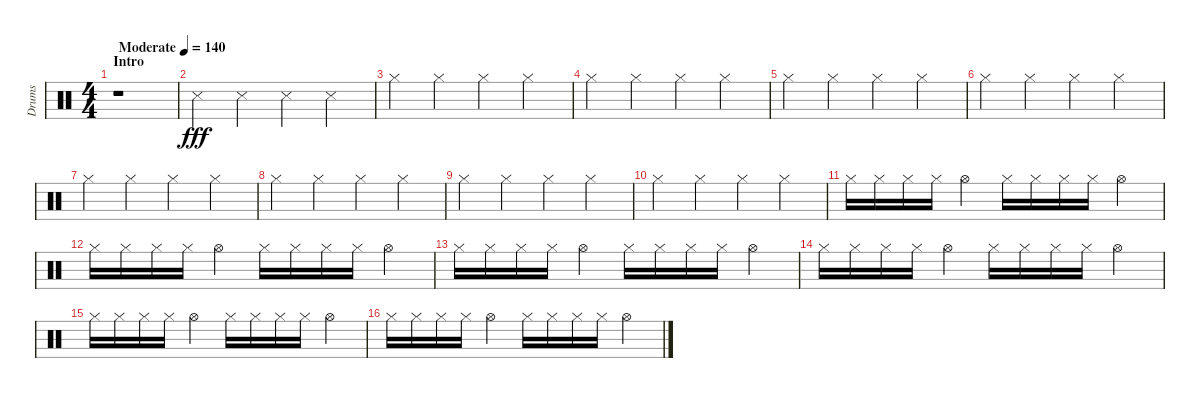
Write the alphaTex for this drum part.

\track ("Drums" "Drums") {instrument percussion}
\staff {score}
\articulation defaults
\ts (4 4)
\section ("" "Intro")
\tempo (140 "Moderate")
\clef neutral
\ks c
r.1{dy fff} |
"Metronome (hit)".4 "Metronome (hit)".4 "Metronome (hit)".4 "Metronome (hit)".4 |
"Hi-Hat (closed)".4 "Hi-Hat (closed)".4 "Hi-Hat (closed)".4 "Hi-Hat (closed)".4 |
"Hi-Hat (closed)".4 "Hi-Hat (closed)".4 "Hi-Hat (closed)".4 "Hi-Hat (closed)".4 |
"Hi-Hat (closed)".4 "Hi-Hat (closed)".4 "Hi-Hat (closed)".4 "Hi-Hat (closed)".4 |
"Hi-Hat (closed)".4 "Hi-Hat (closed)".4 "Hi-Hat (closed)".4 "Hi-Hat (closed)".4 |
"Hi-Hat (closed)".4 "Hi-Hat (closed)".4 "Hi-Hat (closed)".4 "Hi-Hat (closed)".4 |
"Hi-Hat (closed)".4 "Hi-Hat (closed)".4 "Hi-Hat (closed)".4 "Hi-Hat (closed)".4 |
"Hi-Hat (closed)".4 "Hi-Hat (closed)".4 "Hi-Hat (closed)".4 "Hi-Hat (closed)".4 |
"Hi-Hat (closed)".4 "Hi-Hat (closed)".4 "Hi-Hat (closed)".4 "Hi-Hat (closed)".4 |
"Hi-Hat (closed)".16 "Hi-Hat (closed)".16 "Hi-Hat (closed)".16 "Hi-Hat (closed)".16 "Hi-Hat (open)".4 "Hi-Hat (closed)".16 "Hi-Hat (closed)".16 "Hi-Hat (closed)".16 "Hi-Hat (closed)".16 "Hi-Hat (open)".4 |
"Hi-Hat (closed)".16 "Hi-Hat (closed)".16 "Hi-Hat (closed)".16 "Hi-Hat (closed)".16 "Hi-Hat (open)".4 "Hi-Hat (closed)".16 "Hi-Hat (closed)".16 "Hi-Hat (closed)".16 "Hi-Hat (closed)".16 "Hi-Hat (open)".4 |
"Hi-Hat (closed)".16 "Hi-Hat (closed)".16 "Hi-Hat (closed)".16 "Hi-Hat (closed)".16 "Hi-Hat (open)".4 "Hi-Hat (closed)".16 "Hi-Hat (closed)".16 "Hi-Hat (closed)".16 "Hi-Hat (closed)".16 "Hi-Hat (open)".4 |
"Hi-Hat (closed)".16 "Hi-Hat (closed)".16 "Hi-Hat (closed)".16 "Hi-Hat (closed)".16 "Hi-Hat (open)".4 "Hi-Hat (closed)".16 "Hi-Hat (closed)".16 "Hi-Hat (closed)".16 "Hi-Hat (closed)".16 "Hi-Hat (open)".4 |
"Hi-Hat (closed)".16 "Hi-Hat (closed)".16 "Hi-Hat (closed)".16 "Hi-Hat (closed)".16 "Hi-Hat (open)".4 "Hi-Hat (closed)".16 "Hi-Hat (closed)".16 "Hi-Hat (closed)".16 "Hi-Hat (closed)".16 "Hi-Hat (open)".4 |
"Hi-Hat (closed)".16 "Hi-Hat (closed)".16 "Hi-Hat (closed)".16 "Hi-Hat (closed)".16 "Hi-Hat (open)".4 "Hi-Hat (closed)".16 "Hi-Hat (closed)".16 "Hi-Hat (closed)".16 "Hi-Hat (closed)".16 "Hi-Hat (open)".4
